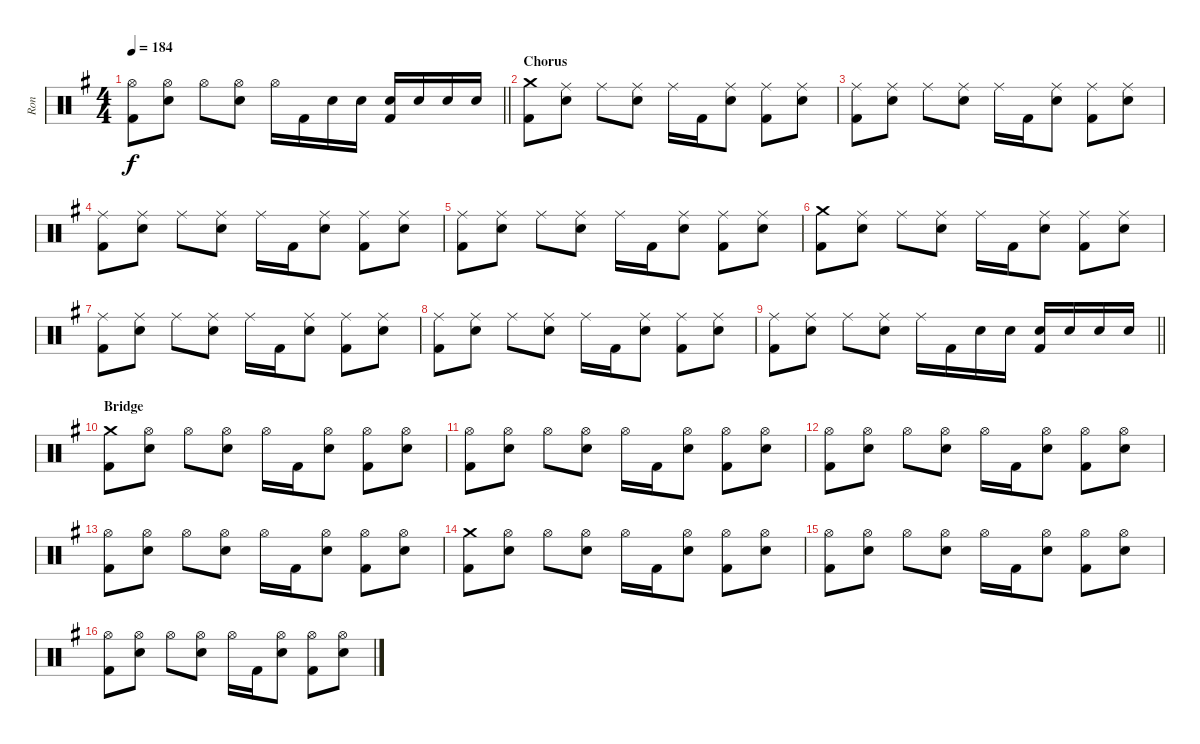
\track ("Ron" "Ron") {instrument percussion}
\staff {score}
\articulation defaults
\ts (4 4)
\tempo 184
\clef neutral
\barLineRight lightlight
\ks eminor
("Hi-Hat (open)" "Kick (hit) 2").8{dy f} ("Hi-Hat (open)" "Electric Snare (hit)").8 "Hi-Hat (open)".8 ("Hi-Hat (open)" "Electric Snare (hit)").8 "Hi-Hat (open)".16 "Kick (hit) 2".16 "Electric Snare (hit)".16 "Electric Snare (hit)".16 ("Electric Snare (hit)" "Kick (hit) 2").16 "Electric Snare (hit)".16 "Electric Snare (hit)".16 "Electric Snare (hit)".16 |
\section ("" "Chorus")
("Crash medium (hit)" "Kick (hit) 2").8 ("Ride (middle)" "Electric Snare (hit)").8 "Ride (middle)".8 ("Ride (middle)" "Electric Snare (hit)").8 "Ride (middle)".16 "Kick (hit) 2".16 ("Ride (middle)" "Electric Snare (hit)").8 ("Ride (middle)" "Kick (hit) 2").8 ("Ride (middle)" "Electric Snare (hit)").8 |
("Ride (middle)" "Kick (hit) 2").8 ("Ride (middle)" "Electric Snare (hit)").8 "Ride (middle)".8 ("Ride (middle)" "Electric Snare (hit)").8 "Ride (middle)".16 "Kick (hit) 2".16 ("Ride (middle)" "Electric Snare (hit)").8 ("Ride (middle)" "Kick (hit) 2").8 ("Ride (middle)" "Electric Snare (hit)").8 |
("Ride (middle)" "Kick (hit) 2").8 ("Ride (middle)" "Electric Snare (hit)").8 "Ride (middle)".8 ("Ride (middle)" "Electric Snare (hit)").8 "Ride (middle)".16 "Kick (hit) 2".16 ("Ride (middle)" "Electric Snare (hit)").8 ("Ride (middle)" "Kick (hit) 2").8 ("Ride (middle)" "Electric Snare (hit)").8 |
("Ride (middle)" "Kick (hit) 2").8 ("Ride (middle)" "Electric Snare (hit)").8 "Ride (middle)".8 ("Ride (middle)" "Electric Snare (hit)").8 "Ride (middle)".16 "Kick (hit) 2".16 ("Ride (middle)" "Electric Snare (hit)").8 ("Ride (middle)" "Kick (hit) 2").8 ("Ride (middle)" "Electric Snare (hit)").8 |
("Crash medium (hit)" "Kick (hit) 2").8 ("Ride (middle)" "Electric Snare (hit)").8 "Ride (middle)".8 ("Ride (middle)" "Electric Snare (hit)").8 "Ride (middle)".16 "Kick (hit) 2".16 ("Ride (middle)" "Electric Snare (hit)").8 ("Ride (middle)" "Kick (hit) 2").8 ("Ride (middle)" "Electric Snare (hit)").8 |
("Ride (middle)" "Kick (hit) 2").8 ("Ride (middle)" "Electric Snare (hit)").8 "Ride (middle)".8 ("Ride (middle)" "Electric Snare (hit)").8 "Ride (middle)".16 "Kick (hit) 2".16 ("Ride (middle)" "Electric Snare (hit)").8 ("Ride (middle)" "Kick (hit) 2").8 ("Ride (middle)" "Electric Snare (hit)").8 |
("Ride (middle)" "Kick (hit) 2").8 ("Ride (middle)" "Electric Snare (hit)").8 "Ride (middle)".8 ("Ride (middle)" "Electric Snare (hit)").8 "Ride (middle)".16 "Kick (hit) 2".16 ("Ride (middle)" "Electric Snare (hit)").8 ("Ride (middle)" "Kick (hit) 2").8 ("Ride (middle)" "Electric Snare (hit)").8 |
\barLineRight lightlight
("Ride (middle)" "Kick (hit) 2").8 ("Ride (middle)" "Electric Snare (hit)").8 "Ride (middle)".8 ("Ride (middle)" "Electric Snare (hit)").8 "Ride (middle)".16 "Kick (hit) 2".16 "Electric Snare (hit)".16 "Electric Snare (hit)".16 ("Electric Snare (hit)" "Kick (hit) 2").16 "Electric Snare (hit)".16 "Electric Snare (hit)".16 "Electric Snare (hit)".16 |
\section ("" "Bridge")
("Crash medium (hit)" "Kick (hit) 2").8 ("Hi-Hat (open)" "Electric Snare (hit)").8 "Hi-Hat (open)".8 ("Hi-Hat (open)" "Electric Snare (hit)").8 "Hi-Hat (open)".16 "Kick (hit) 2".16 ("Hi-Hat (open)" "Electric Snare (hit)").8 ("Hi-Hat (open)" "Kick (hit) 2").8 ("Hi-Hat (open)" "Electric Snare (hit)").8 |
("Hi-Hat (open)" "Kick (hit) 2").8 ("Hi-Hat (open)" "Electric Snare (hit)").8 "Hi-Hat (open)".8 ("Hi-Hat (open)" "Electric Snare (hit)").8 "Hi-Hat (open)".16 "Kick (hit) 2".16 ("Hi-Hat (open)" "Electric Snare (hit)").8 ("Hi-Hat (open)" "Kick (hit) 2").8 ("Hi-Hat (open)" "Electric Snare (hit)").8 |
("Hi-Hat (open)" "Kick (hit) 2").8 ("Hi-Hat (open)" "Electric Snare (hit)").8 "Hi-Hat (open)".8 ("Hi-Hat (open)" "Electric Snare (hit)").8 "Hi-Hat (open)".16 "Kick (hit) 2".16 ("Hi-Hat (open)" "Electric Snare (hit)").8 ("Hi-Hat (open)" "Kick (hit) 2").8 ("Hi-Hat (open)" "Electric Snare (hit)").8 |
("Hi-Hat (open)" "Kick (hit) 2").8 ("Hi-Hat (open)" "Electric Snare (hit)").8 "Hi-Hat (open)".8 ("Hi-Hat (open)" "Electric Snare (hit)").8 "Hi-Hat (open)".16 "Kick (hit) 2".16 ("Hi-Hat (open)" "Electric Snare (hit)").8 ("Hi-Hat (open)" "Kick (hit) 2").8 ("Hi-Hat (open)" "Electric Snare (hit)").8 |
("Crash medium (hit)" "Kick (hit) 2").8 ("Hi-Hat (open)" "Electric Snare (hit)").8 "Hi-Hat (open)".8 ("Hi-Hat (open)" "Electric Snare (hit)").8 "Hi-Hat (open)".16 "Kick (hit) 2".16 ("Hi-Hat (open)" "Electric Snare (hit)").8 ("Hi-Hat (open)" "Kick (hit) 2").8 ("Hi-Hat (open)" "Electric Snare (hit)").8 |
("Hi-Hat (open)" "Kick (hit) 2").8 ("Hi-Hat (open)" "Electric Snare (hit)").8 "Hi-Hat (open)".8 ("Hi-Hat (open)" "Electric Snare (hit)").8 "Hi-Hat (open)".16 "Kick (hit) 2".16 ("Hi-Hat (open)" "Electric Snare (hit)").8 ("Hi-Hat (open)" "Kick (hit) 2").8 ("Hi-Hat (open)" "Electric Snare (hit)").8 |
("Hi-Hat (open)" "Kick (hit) 2").8 ("Hi-Hat (open)" "Electric Snare (hit)").8 "Hi-Hat (open)".8 ("Hi-Hat (open)" "Electric Snare (hit)").8 "Hi-Hat (open)".16 "Kick (hit) 2".16 ("Hi-Hat (open)" "Electric Snare (hit)").8 ("Hi-Hat (open)" "Kick (hit) 2").8 ("Hi-Hat (open)" "Electric Snare (hit)").8
